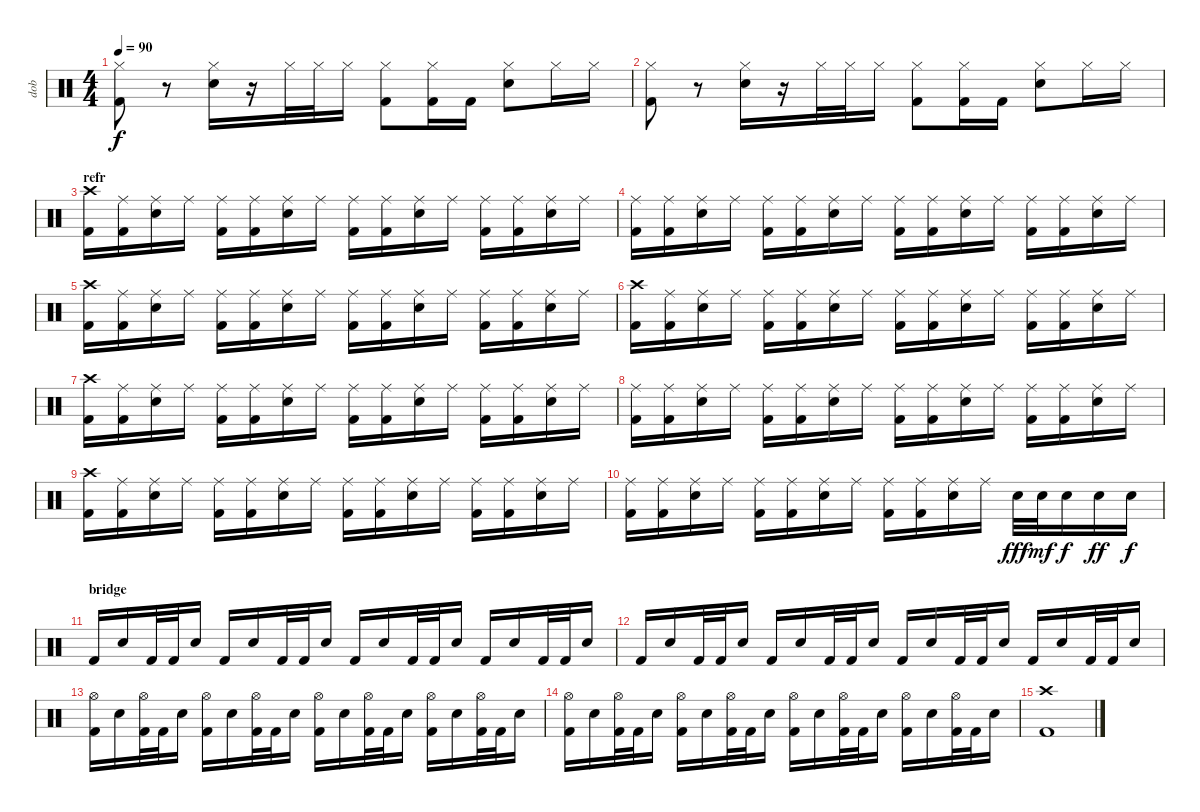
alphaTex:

\track ("dob" "dob") {instrument percussion}
\staff {score}
\articulation defaults
\ts (4 4)
\tempo 90
\clef neutral
\ks c
("Hi-Hat (closed)" "Kick (hit) 2").8{dy f} r.8 ("Hi-Hat (closed)" "Snare (hit) 2").16 r.16 "Hi-Hat (closed)".32 "Hi-Hat (closed)".32 "Hi-Hat (closed)".16 ("Hi-Hat (closed)" "Kick (hit) 2").8 ("Hi-Hat (closed)" "Kick (hit) 2").16 "Kick (hit) 2".16 ("Hi-Hat (closed)" "Snare (hit) 2").8 "Hi-Hat (closed)".16 "Hi-Hat (closed)".16 |
("Hi-Hat (closed)" "Kick (hit) 2").8 r.8 ("Hi-Hat (closed)" "Snare (hit) 2").16 r.16 "Hi-Hat (closed)".32 "Hi-Hat (closed)".32 "Hi-Hat (closed)".16 ("Hi-Hat (closed)" "Kick (hit) 2").8 ("Hi-Hat (closed)" "Kick (hit) 2").16 "Kick (hit) 2".16 ("Hi-Hat (closed)" "Snare (hit) 2").8 "Hi-Hat (closed)".16 "Hi-Hat (closed)".16 |
\section ("" "refr")
("Crash high (hit)" "Kick (hit) 2").16 ("Ride (middle)" "Kick (hit) 2").16 ("Ride (middle)" "Snare (hit) 2").16 "Ride (middle)".16 ("Ride (middle)" "Kick (hit) 2").16 ("Ride (middle)" "Kick (hit) 2").16 ("Ride (middle)" "Snare (hit) 2").16 "Ride (middle)".16 ("Ride (middle)" "Kick (hit) 2").16 ("Ride (middle)" "Kick (hit) 2").16 ("Ride (middle)" "Snare (hit) 2").16 "Ride (middle)".16 ("Ride (middle)" "Kick (hit) 2").16 ("Ride (middle)" "Kick (hit) 2").16 ("Ride (middle)" "Snare (hit) 2").16 "Ride (middle)".16 |
("Ride (middle)" "Kick (hit) 2").16 ("Ride (middle)" "Kick (hit) 2").16 ("Ride (middle)" "Snare (hit) 2").16 "Ride (middle)".16 ("Ride (middle)" "Kick (hit) 2").16 ("Ride (middle)" "Kick (hit) 2").16 ("Ride (middle)" "Snare (hit) 2").16 "Ride (middle)".16 ("Ride (middle)" "Kick (hit) 2").16 ("Ride (middle)" "Kick (hit) 2").16 ("Ride (middle)" "Snare (hit) 2").16 "Ride (middle)".16 ("Ride (middle)" "Kick (hit) 2").16 ("Ride (middle)" "Kick (hit) 2").16 ("Ride (middle)" "Snare (hit) 2").16 "Ride (middle)".16 |
("Crash high (hit)" "Kick (hit) 2").16 ("Ride (middle)" "Kick (hit) 2").16 ("Ride (middle)" "Snare (hit) 2").16 "Ride (middle)".16 ("Ride (middle)" "Kick (hit) 2").16 ("Ride (middle)" "Kick (hit) 2").16 ("Ride (middle)" "Snare (hit) 2").16 "Ride (middle)".16 ("Ride (middle)" "Kick (hit) 2").16 ("Ride (middle)" "Kick (hit) 2").16 ("Ride (middle)" "Snare (hit) 2").16 "Ride (middle)".16 ("Ride (middle)" "Kick (hit) 2").16 ("Ride (middle)" "Kick (hit) 2").16 ("Ride (middle)" "Snare (hit) 2").16 "Ride (middle)".16 |
("Crash high (hit)" "Kick (hit) 2").16 ("Ride (middle)" "Kick (hit) 2").16 ("Ride (middle)" "Snare (hit) 2").16 "Ride (middle)".16 ("Ride (middle)" "Kick (hit) 2").16 ("Ride (middle)" "Kick (hit) 2").16 ("Ride (middle)" "Snare (hit) 2").16 "Ride (middle)".16 ("Ride (middle)" "Kick (hit) 2").16 ("Ride (middle)" "Kick (hit) 2").16 ("Ride (middle)" "Snare (hit) 2").16 "Ride (middle)".16 ("Ride (middle)" "Kick (hit) 2").16 ("Ride (middle)" "Kick (hit) 2").16 ("Ride (middle)" "Snare (hit) 2").16 "Ride (middle)".16 |
("Crash high (hit)" "Kick (hit) 2").16 ("Ride (middle)" "Kick (hit) 2").16 ("Ride (middle)" "Snare (hit) 2").16 "Ride (middle)".16 ("Ride (middle)" "Kick (hit) 2").16 ("Ride (middle)" "Kick (hit) 2").16 ("Ride (middle)" "Snare (hit) 2").16 "Ride (middle)".16 ("Ride (middle)" "Kick (hit) 2").16 ("Ride (middle)" "Kick (hit) 2").16 ("Ride (middle)" "Snare (hit) 2").16 "Ride (middle)".16 ("Ride (middle)" "Kick (hit) 2").16 ("Ride (middle)" "Kick (hit) 2").16 ("Ride (middle)" "Snare (hit) 2").16 "Ride (middle)".16 |
("Ride (middle)" "Kick (hit) 2").16 ("Ride (middle)" "Kick (hit) 2").16 ("Ride (middle)" "Snare (hit) 2").16 "Ride (middle)".16 ("Ride (middle)" "Kick (hit) 2").16 ("Ride (middle)" "Kick (hit) 2").16 ("Ride (middle)" "Snare (hit) 2").16 "Ride (middle)".16 ("Ride (middle)" "Kick (hit) 2").16 ("Ride (middle)" "Kick (hit) 2").16 ("Ride (middle)" "Snare (hit) 2").16 "Ride (middle)".16 ("Ride (middle)" "Kick (hit) 2").16 ("Ride (middle)" "Kick (hit) 2").16 ("Ride (middle)" "Snare (hit) 2").16 "Ride (middle)".16 |
("Crash high (hit)" "Kick (hit) 2").16 ("Ride (middle)" "Kick (hit) 2").16 ("Ride (middle)" "Snare (hit) 2").16 "Ride (middle)".16 ("Ride (middle)" "Kick (hit) 2").16 ("Ride (middle)" "Kick (hit) 2").16 ("Ride (middle)" "Snare (hit) 2").16 "Ride (middle)".16 ("Ride (middle)" "Kick (hit) 2").16 ("Ride (middle)" "Kick (hit) 2").16 ("Ride (middle)" "Snare (hit) 2").16 "Ride (middle)".16 ("Ride (middle)" "Kick (hit) 2").16 ("Ride (middle)" "Kick (hit) 2").16 ("Ride (middle)" "Snare (hit) 2").16 "Ride (middle)".16 |
("Ride (middle)" "Kick (hit) 2").16 ("Ride (middle)" "Kick (hit) 2").16 ("Ride (middle)" "Snare (hit) 2").16 "Ride (middle)".16 ("Ride (middle)" "Kick (hit) 2").16 ("Ride (middle)" "Kick (hit) 2").16 ("Ride (middle)" "Snare (hit) 2").16 "Ride (middle)".16 ("Ride (middle)" "Kick (hit) 2").16 ("Ride (middle)" "Kick (hit) 2").16 ("Ride (middle)" "Snare (hit) 2").16 "Ride (middle)".16 "Snare (hit) 2".32{dy fff} "Snare (hit) 2".32{dy mf} "Snare (hit) 2".16{dy f} "Snare (hit) 2".16{dy ff} "Snare (hit) 2".16{dy f} |
\section ("" "bridge")
"Kick (hit) 2".16 "Snare (hit) 2".16 "Kick (hit) 2".32 "Kick (hit) 2".32 "Snare (hit) 2".16 "Kick (hit) 2".16 "Snare (hit) 2".16 "Kick (hit) 2".32 "Kick (hit) 2".32 "Snare (hit) 2".16 "Kick (hit) 2".16 "Snare (hit) 2".16 "Kick (hit) 2".32 "Kick (hit) 2".32 "Snare (hit) 2".16 "Kick (hit) 2".16 "Snare (hit) 2".16 "Kick (hit) 2".32 "Kick (hit) 2".32 "Snare (hit) 2".16 |
"Kick (hit) 2".16 "Snare (hit) 2".16 "Kick (hit) 2".32 "Kick (hit) 2".32 "Snare (hit) 2".16 "Kick (hit) 2".16 "Snare (hit) 2".16 "Kick (hit) 2".32 "Kick (hit) 2".32 "Snare (hit) 2".16 "Kick (hit) 2".16 "Snare (hit) 2".16 "Kick (hit) 2".32 "Kick (hit) 2".32 "Snare (hit) 2".16 "Kick (hit) 2".16 "Snare (hit) 2".16 "Kick (hit) 2".32 "Kick (hit) 2".32 "Snare (hit) 2".16 |
("Hi-Hat (open)" "Kick (hit) 2").16 "Snare (hit) 2".16 ("Hi-Hat (open)" "Kick (hit) 2").32 "Kick (hit) 2".32 "Snare (hit) 2".16 ("Hi-Hat (open)" "Kick (hit) 2").16 "Snare (hit) 2".16 ("Hi-Hat (open)" "Kick (hit) 2").32 "Kick (hit) 2".32 "Snare (hit) 2".16 ("Hi-Hat (open)" "Kick (hit) 2").16 "Snare (hit) 2".16 ("Hi-Hat (open)" "Kick (hit) 2").32 "Kick (hit) 2".32 "Snare (hit) 2".16 ("Hi-Hat (open)" "Kick (hit) 2").16 "Snare (hit) 2".16 ("Hi-Hat (open)" "Kick (hit) 2").32 "Kick (hit) 2".32 "Snare (hit) 2".16 |
("Hi-Hat (open)" "Kick (hit) 2").16 "Snare (hit) 2".16 ("Hi-Hat (open)" "Kick (hit) 2").32 "Kick (hit) 2".32 "Snare (hit) 2".16 ("Hi-Hat (open)" "Kick (hit) 2").16 "Snare (hit) 2".16 ("Hi-Hat (open)" "Kick (hit) 2").32 "Kick (hit) 2".32 "Snare (hit) 2".16 ("Hi-Hat (open)" "Kick (hit) 2").16 "Snare (hit) 2".16 ("Hi-Hat (open)" "Kick (hit) 2").32 "Kick (hit) 2".32 "Snare (hit) 2".16 ("Hi-Hat (open)" "Kick (hit) 2").16 "Snare (hit) 2".16 ("Hi-Hat (open)" "Kick (hit) 2").32 "Kick (hit) 2".32 "Snare (hit) 2".16 |
("Crash high (hit)" "Kick (hit) 2").1{volume 0}
